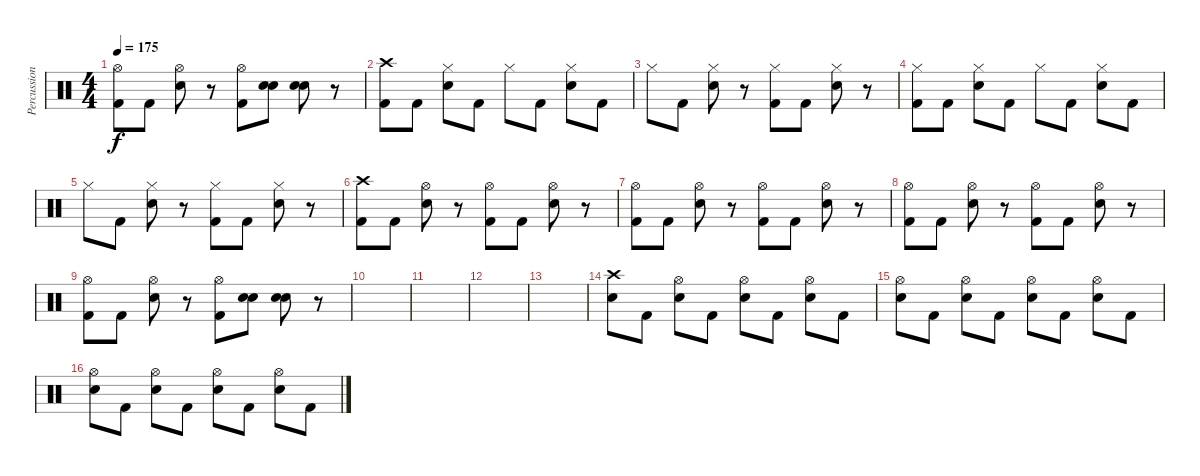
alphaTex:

\track ("Percussion" "Percussion") {instrument percussion}
\staff {score}
\articulation defaults
\ts (4 4)
\tempo 175
\clef neutral
\ks c
("Hi-Hat (open)" "Kick (hit) 2").8{dy f} "Kick (hit) 2".8 ("Hi-Hat (open)" "Snare (hit) 2").8 r.8 ("Hi-Hat (open)" "Kick (hit) 2").8 ("Snare (hit) 2" "Electric Snare (hit)").8 ("Snare (hit) 2" "Electric Snare (hit)").8 r.8 |
("Crash high (hit)" "Kick (hit) 2").8 "Kick (hit) 2".8 ("Hi-Hat (closed)" "Snare (hit) 2").8 "Kick (hit) 2".8 "Hi-Hat (closed)".8 "Kick (hit) 2".8 ("Hi-Hat (closed)" "Snare (hit) 2").8 "Kick (hit) 2".8 |
"Hi-Hat (closed)".8 "Kick (hit) 2".8 ("Hi-Hat (closed)" "Snare (hit) 2").8 r.8 ("Hi-Hat (closed)" "Kick (hit) 2").8 "Kick (hit) 2".8 ("Hi-Hat (closed)" "Snare (hit) 2").8 r.8 |
("Hi-Hat (closed)" "Kick (hit) 2").8 "Kick (hit) 2".8 ("Hi-Hat (closed)" "Snare (hit) 2").8 "Kick (hit) 2".8 "Hi-Hat (closed)".8 "Kick (hit) 2".8 ("Hi-Hat (closed)" "Snare (hit) 2").8 "Kick (hit) 2".8 |
"Hi-Hat (closed)".8 "Kick (hit) 2".8 ("Hi-Hat (closed)" "Snare (hit) 2").8 r.8 ("Hi-Hat (closed)" "Kick (hit) 2").8 "Kick (hit) 2".8 ("Hi-Hat (closed)" "Snare (hit) 2").8 r.8 |
("Crash high (hit)" "Kick (hit) 2").8 "Kick (hit) 2".8 ("Hi-Hat (open)" "Snare (hit) 2").8 r.8 ("Hi-Hat (open)" "Kick (hit) 2").8 "Kick (hit) 2".8 ("Hi-Hat (open)" "Snare (hit) 2").8 r.8 |
("Hi-Hat (open)" "Kick (hit) 2").8 "Kick (hit) 2".8 ("Hi-Hat (open)" "Snare (hit) 2").8 r.8 ("Hi-Hat (open)" "Kick (hit) 2").8 "Kick (hit) 2".8 ("Hi-Hat (open)" "Snare (hit) 2").8 r.8 |
("Hi-Hat (open)" "Kick (hit) 2").8 "Kick (hit) 2".8 ("Hi-Hat (open)" "Snare (hit) 2").8 r.8 ("Hi-Hat (open)" "Kick (hit) 2").8 "Kick (hit) 2".8 ("Hi-Hat (open)" "Snare (hit) 2").8 r.8 |
("Hi-Hat (open)" "Kick (hit) 2").8 "Kick (hit) 2".8 ("Hi-Hat (open)" "Snare (hit) 2").8 r.8 ("Hi-Hat (open)" "Kick (hit) 2").8 ("Snare (hit) 2" "Electric Snare (hit)").8 ("Snare (hit) 2" "Electric Snare (hit)").8 r.8 |
|
|
|
|
("Crash high (hit)" "Snare (hit) 2").8 "Kick (hit) 2".8 ("Hi-Hat (open)" "Snare (hit) 2").8 "Kick (hit) 2".8 ("Hi-Hat (open)" "Snare (hit) 2").8 "Kick (hit) 2".8 ("Hi-Hat (open)" "Snare (hit) 2").8 "Kick (hit) 2".8 |
("Hi-Hat (open)" "Snare (hit) 2").8 "Kick (hit) 2".8 ("Hi-Hat (open)" "Snare (hit) 2").8 "Kick (hit) 2".8 ("Hi-Hat (open)" "Snare (hit) 2").8 "Kick (hit) 2".8 ("Hi-Hat (open)" "Snare (hit) 2").8 "Kick (hit) 2".8 |
("Hi-Hat (open)" "Snare (hit) 2").8 "Kick (hit) 2".8 ("Hi-Hat (open)" "Snare (hit) 2").8 "Kick (hit) 2".8 ("Hi-Hat (open)" "Snare (hit) 2").8 "Kick (hit) 2".8 ("Hi-Hat (open)" "Snare (hit) 2").8 "Kick (hit) 2".8
